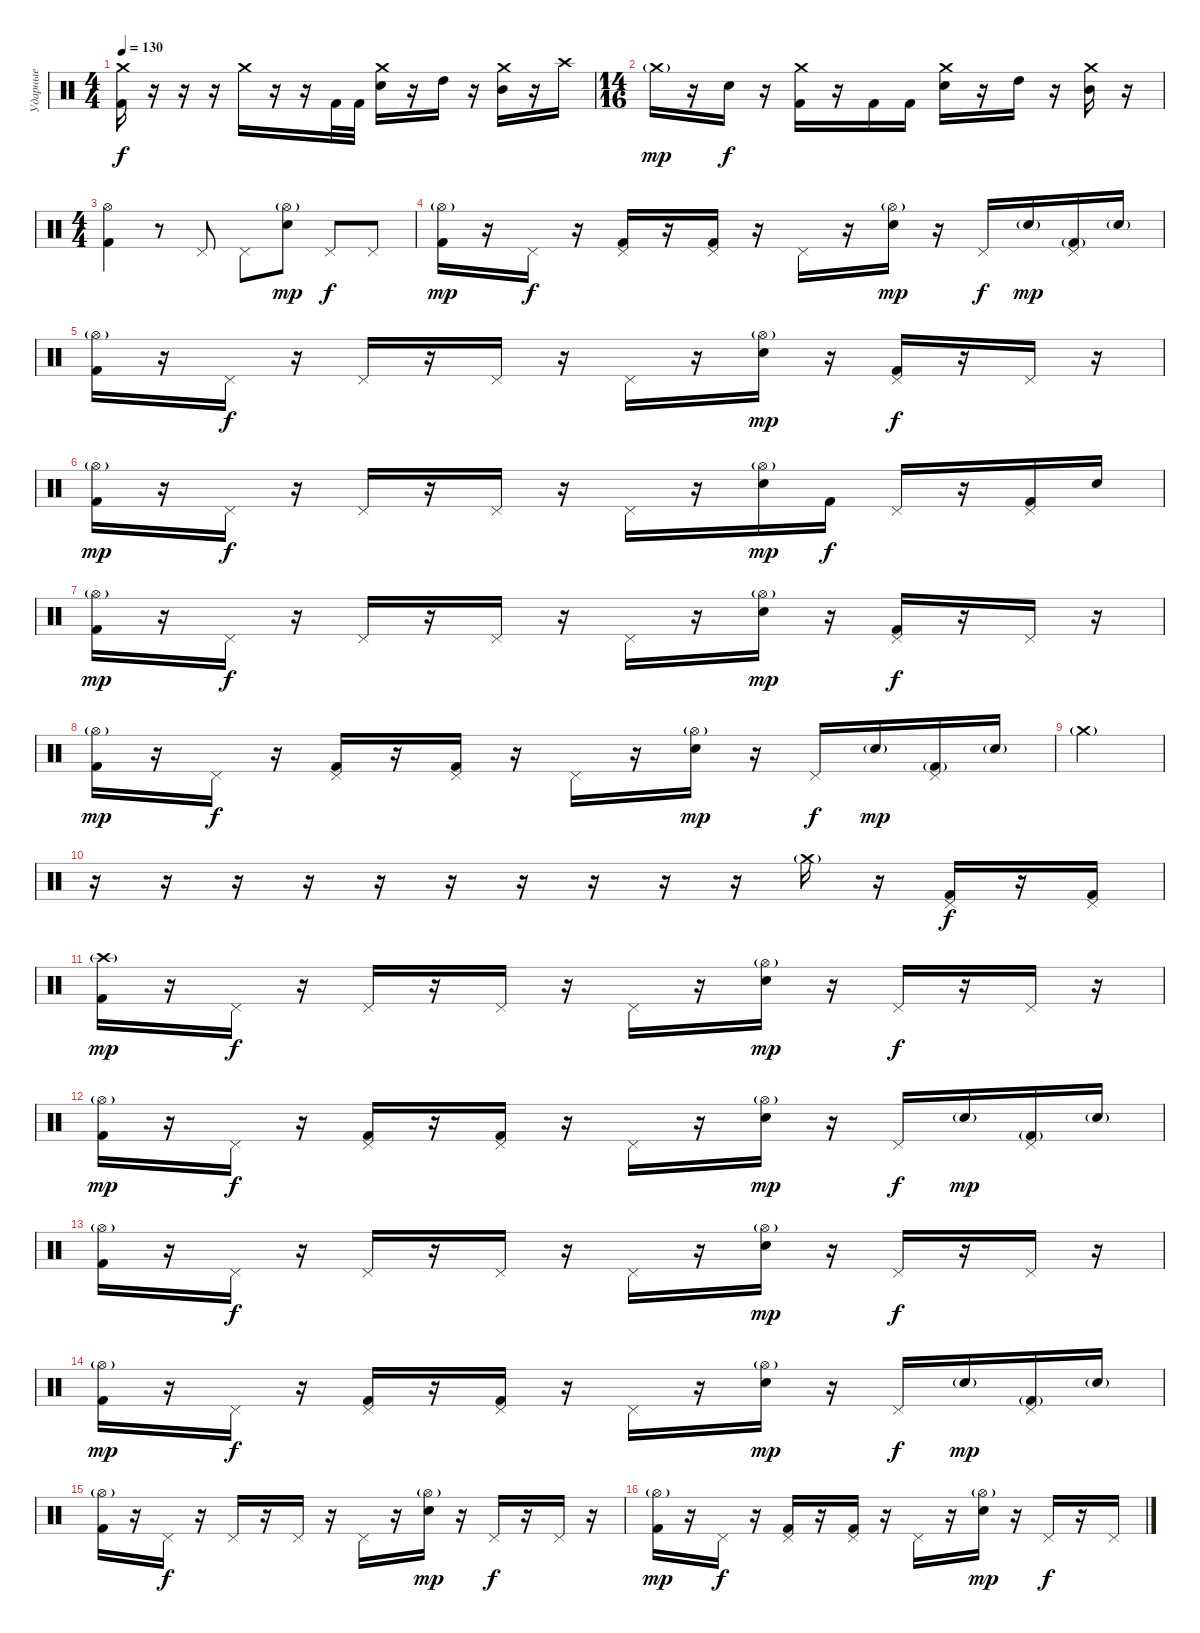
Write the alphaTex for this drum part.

\track ("Ударные" "Ударные") {instrument percussion}
\staff {score}
\articulation defaults
\ts (4 4)
\tempo 130
\clef neutral
\ks c
("Crash medium (hit)" "Kick (hit) 2").16{dy f} r.16 r.16 r.16 "Crash medium (hit)".16 r.16 r.16 "Kick (hit) 2".32 "Kick (hit) 2".32 ("Crash medium (hit)" "Electric Snare (hit)").16 r.16 "High Tom (hit)".16 r.16 ("Crash medium (hit)" "Mid Tom (hit)").16 r.16 "Crash high (hit)".16 |
\ts (14 16)
"Crash medium (hit)"{g}.16{dy mp} r.16 "Electric Snare (hit)".16{dy f} r.16 ("Crash medium (hit)" "Kick (hit) 2").16 r.16 "Kick (hit) 2".16 "Kick (hit) 2".16 ("Crash medium (hit)" "Electric Snare (hit)").16 r.16 "High Tom (hit)".16 r.16 ("Crash medium (hit)" "Mid Tom (hit)").16 r.16 |
\ts (4 4)
("Hi-Hat (open)" "Kick (hit) 2").4 r.8 "Pedal Hi-Hat (hit)".8 "Pedal Hi-Hat (hit)".8 ("Hi-Hat (open)"{g} "Electric Snare (hit)").8{dy mp} "Pedal Hi-Hat (hit)".8{dy f} "Pedal Hi-Hat (hit)".8 |
("Hi-Hat (open)"{g} "Kick (hit) 2").16{dy mp} r.16 "Pedal Hi-Hat (hit)".16{dy f} r.16 ("Pedal Hi-Hat (hit)" "Kick (hit) 2").16 r.16 ("Pedal Hi-Hat (hit)" "Kick (hit) 2").16 r.16 "Pedal Hi-Hat (hit)".16 r.16 ("Hi-Hat (open)"{g} "Electric Snare (hit)").16{dy mp} r.16 "Pedal Hi-Hat (hit)".16{dy f} "Electric Snare (hit)"{g}.16{dy mp} ("Pedal Hi-Hat (hit)" "Kick (hit) 2"{g}).16 "Electric Snare (hit)"{g}.16 |
("Hi-Hat (open)"{g} "Kick (hit) 2").16 r.16 "Pedal Hi-Hat (hit)".16{dy f} r.16 "Pedal Hi-Hat (hit)".16 r.16 "Pedal Hi-Hat (hit)".16 r.16 "Pedal Hi-Hat (hit)".16 r.16 ("Hi-Hat (open)"{g} "Electric Snare (hit)").16{dy mp} r.16 ("Pedal Hi-Hat (hit)" "Kick (hit) 2").16{dy f} r.16 "Pedal Hi-Hat (hit)".16 r.16 |
("Hi-Hat (open)"{g} "Kick (hit) 2").16{dy mp} r.16 "Pedal Hi-Hat (hit)".16{dy f} r.16 "Pedal Hi-Hat (hit)".16 r.16 "Pedal Hi-Hat (hit)".16 r.16 "Pedal Hi-Hat (hit)".16 r.16 ("Hi-Hat (open)"{g} "Electric Snare (hit)").16{dy mp} "Kick (hit) 2".16{dy f} "Pedal Hi-Hat (hit)".16 r.16 ("Pedal Hi-Hat (hit)" "Kick (hit) 2").16 "Electric Snare (hit)".16 |
("Hi-Hat (open)"{g} "Kick (hit) 2").16{dy mp} r.16 "Pedal Hi-Hat (hit)".16{dy f} r.16 "Pedal Hi-Hat (hit)".16 r.16 "Pedal Hi-Hat (hit)".16 r.16 "Pedal Hi-Hat (hit)".16 r.16 ("Hi-Hat (open)"{g} "Electric Snare (hit)").16{dy mp} r.16 ("Pedal Hi-Hat (hit)" "Kick (hit) 2").16{dy f} r.16 "Pedal Hi-Hat (hit)".16 r.16 |
("Hi-Hat (open)"{g} "Kick (hit) 2").16{dy mp} r.16 "Pedal Hi-Hat (hit)".16{dy f} r.16 ("Pedal Hi-Hat (hit)" "Kick (hit) 2").16 r.16 ("Pedal Hi-Hat (hit)" "Kick (hit) 2").16 r.16 "Pedal Hi-Hat (hit)".16 r.16 ("Hi-Hat (open)"{g} "Electric Snare (hit)").16{dy mp} r.16 "Pedal Hi-Hat (hit)".16{dy f} "Electric Snare (hit)"{g}.16{dy mp} ("Pedal Hi-Hat (hit)" "Kick (hit) 2"{g}).16 "Electric Snare (hit)"{g}.16 |
"Crash medium (hit)"{g}.4 |
r.16 r.16 r.16 r.16 r.16 r.16 r.16 r.16 r.16 r.16 "Crash medium (hit)"{g}.16 r.16 ("Pedal Hi-Hat (hit)" "Kick (hit) 2").16{dy f} r.16 ("Pedal Hi-Hat (hit)" "Kick (hit) 2").16 |
("Crash high (hit)"{g} "Kick (hit) 2").16{dy mp} r.16 "Pedal Hi-Hat (hit)".16{dy f} r.16 "Pedal Hi-Hat (hit)".16 r.16 "Pedal Hi-Hat (hit)".16 r.16 "Pedal Hi-Hat (hit)".16 r.16 ("Hi-Hat (open)"{g} "Electric Snare (hit)").16{dy mp} r.16 "Pedal Hi-Hat (hit)".16{dy f} r.16 "Pedal Hi-Hat (hit)".16 r.16 |
("Hi-Hat (open)"{g} "Kick (hit) 2").16{dy mp} r.16 "Pedal Hi-Hat (hit)".16{dy f} r.16 ("Pedal Hi-Hat (hit)" "Kick (hit) 2").16 r.16 ("Pedal Hi-Hat (hit)" "Kick (hit) 2").16 r.16 "Pedal Hi-Hat (hit)".16 r.16 ("Hi-Hat (open)"{g} "Electric Snare (hit)").16{dy mp} r.16 "Pedal Hi-Hat (hit)".16{dy f} "Electric Snare (hit)"{g}.16{dy mp} ("Pedal Hi-Hat (hit)" "Kick (hit) 2"{g}).16 "Electric Snare (hit)"{g}.16 |
("Hi-Hat (open)"{g} "Kick (hit) 2").16 r.16 "Pedal Hi-Hat (hit)".16{dy f} r.16 "Pedal Hi-Hat (hit)".16 r.16 "Pedal Hi-Hat (hit)".16 r.16 "Pedal Hi-Hat (hit)".16 r.16 ("Hi-Hat (open)"{g} "Electric Snare (hit)").16{dy mp} r.16 "Pedal Hi-Hat (hit)".16{dy f} r.16 "Pedal Hi-Hat (hit)".16 r.16 |
("Hi-Hat (open)"{g} "Kick (hit) 2").16{dy mp} r.16 "Pedal Hi-Hat (hit)".16{dy f} r.16 ("Pedal Hi-Hat (hit)" "Kick (hit) 2").16 r.16 ("Pedal Hi-Hat (hit)" "Kick (hit) 2").16 r.16 "Pedal Hi-Hat (hit)".16 r.16 ("Hi-Hat (open)"{g} "Electric Snare (hit)").16{dy mp} r.16 "Pedal Hi-Hat (hit)".16{dy f} "Electric Snare (hit)"{g}.16{dy mp} ("Pedal Hi-Hat (hit)" "Kick (hit) 2"{g}).16 "Electric Snare (hit)"{g}.16 |
("Hi-Hat (open)"{g} "Kick (hit) 2").16 r.16 "Pedal Hi-Hat (hit)".16{dy f} r.16 "Pedal Hi-Hat (hit)".16 r.16 "Pedal Hi-Hat (hit)".16 r.16 "Pedal Hi-Hat (hit)".16 r.16 ("Hi-Hat (open)"{g} "Electric Snare (hit)").16{dy mp} r.16 "Pedal Hi-Hat (hit)".16{dy f} r.16 "Pedal Hi-Hat (hit)".16 r.16 |
("Hi-Hat (open)"{g} "Kick (hit) 2").16{dy mp} r.16 "Pedal Hi-Hat (hit)".16{dy f} r.16 ("Pedal Hi-Hat (hit)" "Kick (hit) 2").16 r.16 ("Pedal Hi-Hat (hit)" "Kick (hit) 2").16 r.16 "Pedal Hi-Hat (hit)".16 r.16 ("Hi-Hat (open)"{g} "Electric Snare (hit)").16{dy mp} r.16 "Pedal Hi-Hat (hit)".16{dy f} r.16 "Pedal Hi-Hat (hit)".16
